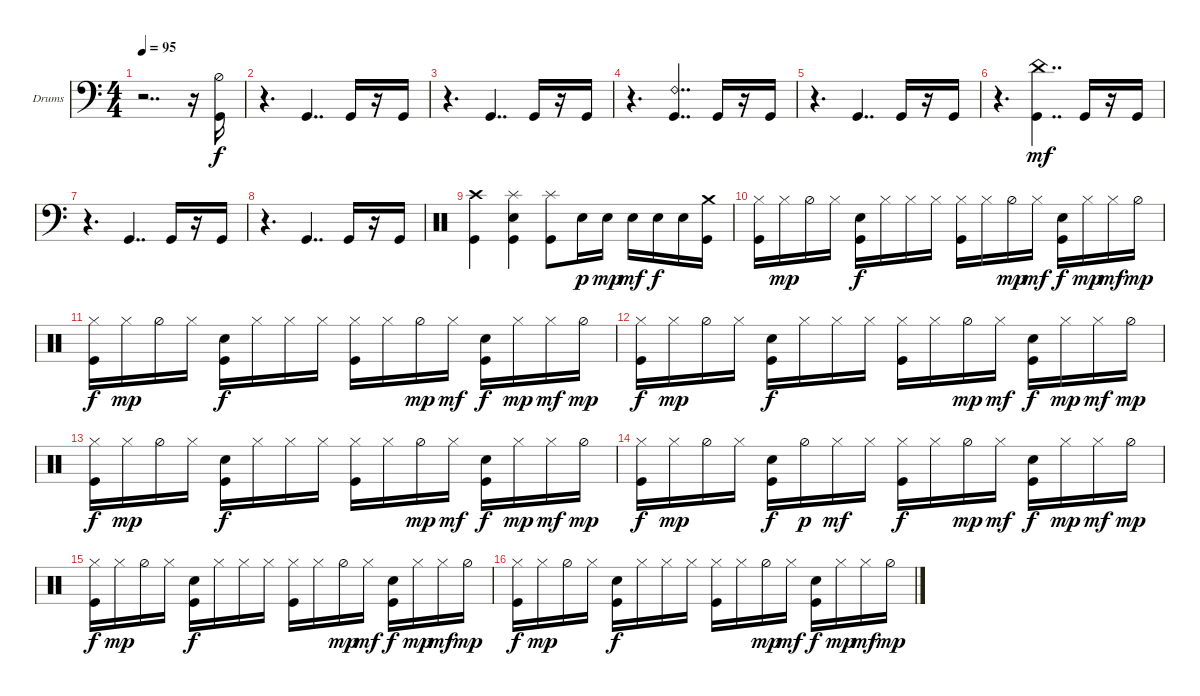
\defaultSystemsLayout 4
\bracketExtendMode groupsimilarinstruments
\firstSystemTrackNameOrientation horizontal
\otherSystemsTrackNameOrientation horizontal
\track ("Drumkit" "Drums") {instrument percussion}
\staff {score}
\articulation defaults
\ts (4 4)
\tempo 95
\clef f4
\ks c
r.2{dd dy f} r.16 ("Kick (hit)" "Hi-Hat (half)").16 |
r.4{d} "Kick (hit)".4{dd} "Kick (hit)".16 r.16 "Kick (hit)".16 |
r.4{d} "Kick (hit)".4{dd} "Kick (hit)".16 r.16 "Kick (hit)".16 |
r.4{d} ("Kick (hit)" "Ride (bell) 2").4{dd} "Kick (hit)".16 r.16 "Kick (hit)".16 |
r.4{d} "Kick (hit)".4{dd} "Kick (hit)".16 r.16 "Kick (hit)".16 |
r.4{d} ("Kick (hit)" "China (hit)").4{dd dy mf} "Kick (hit)".16 r.16 "Kick (hit)".16 |
r.4{d} "Kick (hit)".4{dd} "Kick (hit)".16 r.16 "Kick (hit)".16 |
r.4{d} "Kick (hit)".4{dd} "Kick (hit)".16 r.16 "Kick (hit)".16 |
\clef neutral
("Kick (hit)" "Crash high (hit)").4 ("Kick (hit)" "Snare (hit) 2" "Splash (hit)").4 ("Kick (hit)" "Splash (hit)").8 "Snare (hit) 2".16{dy p} "Snare (hit) 2".16{dy mp} "Snare (hit) 2".16{dy mf} "Snare (hit) 2".16{dy f} "Snare (hit) 2".16 ("Kick (hit)" "Crash medium (hit)").16 |
("Kick (hit)" "Hi-Hat (closed)").16 "Hi-Hat (closed)".16{dy mp} "Hi-Hat (half)".16 "Hi-Hat (closed)".16 ("Kick (hit)" "Snare (hit) 2").16{dy f} "Hi-Hat (closed)".16 "Hi-Hat (closed)".16 "Hi-Hat (closed)".16 ("Hi-Hat (closed)" "Kick (hit)").16 "Hi-Hat (closed)".16 "Hi-Hat (half)".16{dy mp} "Hi-Hat (closed)".16{dy mf} ("Snare (hit) 2" "Kick (hit)").16{dy f} "Hi-Hat (closed)".16{dy mp} "Hi-Hat (closed)".16{dy mf} "Hi-Hat (half)".16{dy mp} |
("Kick (hit)" "Hi-Hat (closed)").16{dy f} "Hi-Hat (closed)".16{dy mp} "Hi-Hat (half)".16 "Hi-Hat (closed)".16 ("Kick (hit)" "Snare (hit) 2").16{dy f} "Hi-Hat (closed)".16 "Hi-Hat (closed)".16 "Hi-Hat (closed)".16 ("Hi-Hat (closed)" "Kick (hit)").16 "Hi-Hat (closed)".16 "Hi-Hat (half)".16{dy mp} "Hi-Hat (closed)".16{dy mf} ("Snare (hit) 2" "Kick (hit)").16{dy f} "Hi-Hat (closed)".16{dy mp} "Hi-Hat (closed)".16{dy mf} "Hi-Hat (half)".16{dy mp} |
("Kick (hit)" "Hi-Hat (closed)").16{dy f} "Hi-Hat (closed)".16{dy mp} "Hi-Hat (half)".16 "Hi-Hat (closed)".16 ("Kick (hit)" "Snare (hit) 2").16{dy f} "Hi-Hat (closed)".16 "Hi-Hat (closed)".16 "Hi-Hat (closed)".16 ("Hi-Hat (closed)" "Kick (hit)").16 "Hi-Hat (closed)".16 "Hi-Hat (half)".16{dy mp} "Hi-Hat (closed)".16{dy mf} ("Snare (hit) 2" "Kick (hit)").16{dy f} "Hi-Hat (closed)".16{dy mp} "Hi-Hat (closed)".16{dy mf} "Hi-Hat (half)".16{dy mp} |
("Kick (hit)" "Hi-Hat (closed)").16{dy f} "Hi-Hat (closed)".16{dy mp} "Hi-Hat (half)".16 "Hi-Hat (closed)".16 ("Kick (hit)" "Snare (hit) 2").16{dy f} "Hi-Hat (closed)".16 "Hi-Hat (closed)".16 "Hi-Hat (closed)".16 ("Hi-Hat (closed)" "Kick (hit)").16 "Hi-Hat (closed)".16 "Hi-Hat (half)".16{dy mp} "Hi-Hat (closed)".16{dy mf} ("Snare (hit) 2" "Kick (hit)").16{dy f} "Hi-Hat (closed)".16{dy mp} "Hi-Hat (closed)".16{dy mf} "Hi-Hat (half)".16{dy mp} |
("Kick (hit)" "Hi-Hat (closed)").16{dy f} "Hi-Hat (closed)".16{dy mp} "Hi-Hat (half)".16 "Hi-Hat (closed)".16 ("Kick (hit)" "Snare (hit) 2").16{dy f} "Hi-Hat (half)".16{dy p} "Hi-Hat (closed)".16{dy mf} "Hi-Hat (closed)".16 ("Hi-Hat (closed)" "Kick (hit)").16{dy f} "Hi-Hat (closed)".16 "Hi-Hat (half)".16{dy mp} "Hi-Hat (closed)".16{dy mf} ("Snare (hit) 2" "Kick (hit)").16{dy f} "Hi-Hat (closed)".16{dy mp} "Hi-Hat (closed)".16{dy mf} "Hi-Hat (half)".16{dy mp} |
("Kick (hit)" "Hi-Hat (closed)").16{dy f} "Hi-Hat (closed)".16{dy mp} "Hi-Hat (half)".16 "Hi-Hat (closed)".16 ("Kick (hit)" "Snare (hit) 2").16{dy f} "Hi-Hat (closed)".16 "Hi-Hat (closed)".16 "Hi-Hat (closed)".16 ("Hi-Hat (closed)" "Kick (hit)").16 "Hi-Hat (closed)".16 "Hi-Hat (half)".16{dy mp} "Hi-Hat (closed)".16{dy mf} ("Snare (hit) 2" "Kick (hit)").16{dy f} "Hi-Hat (closed)".16{dy mp} "Hi-Hat (closed)".16{dy mf} "Hi-Hat (half)".16{dy mp} |
("Kick (hit)" "Hi-Hat (closed)").16{dy f} "Hi-Hat (closed)".16{dy mp} "Hi-Hat (half)".16 "Hi-Hat (closed)".16 ("Kick (hit)" "Snare (hit) 2").16{dy f} "Hi-Hat (closed)".16 "Hi-Hat (closed)".16 "Hi-Hat (closed)".16 ("Hi-Hat (closed)" "Kick (hit)").16 "Hi-Hat (closed)".16 "Hi-Hat (half)".16{dy mp} "Hi-Hat (closed)".16{dy mf} ("Snare (hit) 2" "Kick (hit)").16{dy f} "Hi-Hat (closed)".16{dy mp} "Hi-Hat (closed)".16{dy mf} "Hi-Hat (half)".16{dy mp}
